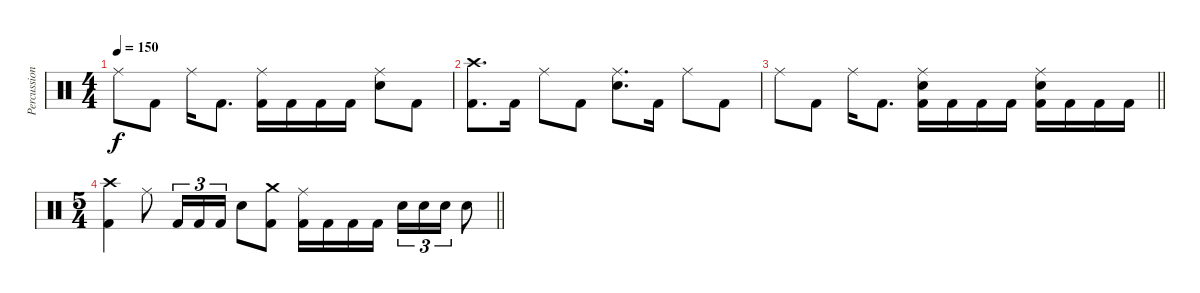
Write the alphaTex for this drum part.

\track ("Percussion" "Percussion") {instrument percussion}
\staff {score}
\articulation defaults
\ts (4 4)
\tempo 150
\clef neutral
\ks c "Ride (middle)".8{dy f} "Kick (hit) 2".8 "Ride (middle)".16 "Kick (hit) 2".8{d}
("Ride (middle)" "Kick (hit) 2").16 "Kick (hit) 2".16 "Kick (hit) 2".16 "Kick (hit) 2".16 ("Ride (middle)" "Electric Snare (hit)").8 "Kick (hit) 2".8 |
("Crash high (hit)" "Kick (hit) 2").8{d} "Kick (hit) 2".16 "Ride (middle)".8 "Kick (hit) 2".8 ("Ride (middle)" "Electric Snare (hit)").8{d} "Kick (hit) 2".16 "Ride (middle)".8 "Kick (hit) 2".8 |
\barLineRight lightlight "Ride (middle)".8 "Kick (hit) 2".8 "Ride (middle)".16 "Kick (hit) 2".8{d}
("Ride (middle)" "Electric Snare (hit)" "Kick (hit) 2").16 "Kick (hit) 2".16 "Kick (hit) 2".16 "Kick (hit) 2".16 ("Ride (middle)" "Electric Snare (hit)" "Kick (hit) 2").16 "Kick (hit) 2".16 "Kick (hit) 2".16 "Kick (hit) 2".16 |
\ts (5 4)
\barLineRight lightlight
("Crash high (hit)" "Kick (hit) 2").4 "Ride (middle)".8 "Kick (hit) 2".16{tu (3 2)} "Kick (hit) 2".16{tu (3 2)} "Kick (hit) 2".16{tu (3 2)} "Electric Snare (hit)".8 ("Crash medium (hit)" "Kick (hit) 2").8 ("Ride (middle)" "Kick (hit) 2").16 "Kick (hit) 2".16 "Kick (hit) 2".16 "Kick (hit) 2".16 "Electric Snare (hit)".16{tu (3 2)} "Electric Snare (hit)".16{tu (3 2)} "Electric Snare (hit)".16{tu (3 2)} "Electric Snare (hit)".8
